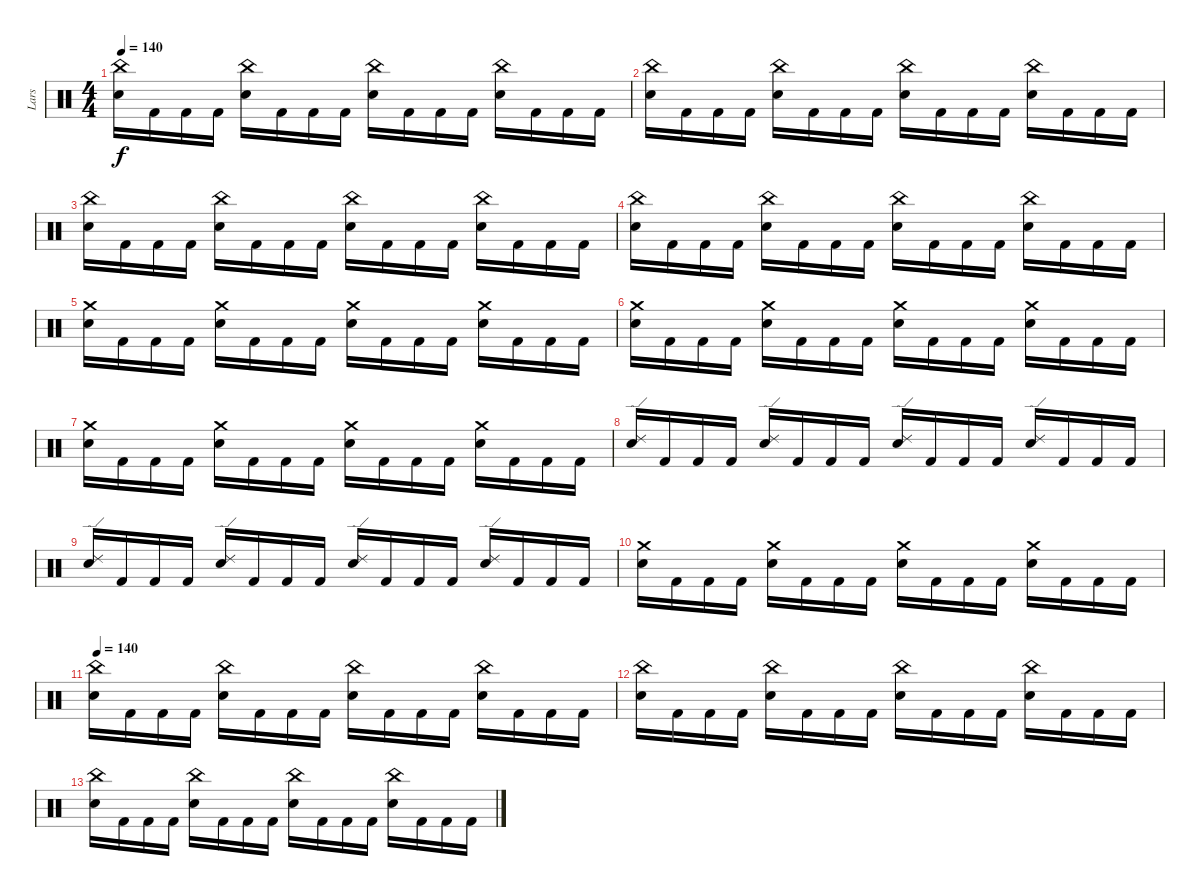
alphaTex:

\track ("Lars" "Lars") {instrument percussion}
\staff {score}
\articulation defaults
\ts (4 4)
\tempo 140
\clef neutral
\ks c
("China (hit)" "Electric Snare (hit)").16{dy f} "Kick (hit) 2".16 "Kick (hit) 2".16 "Kick (hit) 2".16 ("Electric Snare (hit)" "China (hit)").16 "Kick (hit) 2".16 "Kick (hit) 2".16 "Kick (hit) 2".16 ("Electric Snare (hit)" "China (hit)").16 "Kick (hit) 2".16 "Kick (hit) 2".16 "Kick (hit) 2".16 ("China (hit)" "Electric Snare (hit)").16 "Kick (hit) 2".16 "Kick (hit) 2".16 "Kick (hit) 2".16 |
("China (hit)" "Electric Snare (hit)").16 "Kick (hit) 2".16 "Kick (hit) 2".16 "Kick (hit) 2".16 ("Electric Snare (hit)" "China (hit)").16 "Kick (hit) 2".16 "Kick (hit) 2".16 "Kick (hit) 2".16 ("Electric Snare (hit)" "China (hit)").16 "Kick (hit) 2".16 "Kick (hit) 2".16 "Kick (hit) 2".16 ("China (hit)" "Electric Snare (hit)").16 "Kick (hit) 2".16 "Kick (hit) 2".16 "Kick (hit) 2".16 |
("China (hit)" "Electric Snare (hit)").16 "Kick (hit) 2".16 "Kick (hit) 2".16 "Kick (hit) 2".16 ("Electric Snare (hit)" "China (hit)").16 "Kick (hit) 2".16 "Kick (hit) 2".16 "Kick (hit) 2".16 ("Electric Snare (hit)" "China (hit)").16 "Kick (hit) 2".16 "Kick (hit) 2".16 "Kick (hit) 2".16 ("China (hit)" "Electric Snare (hit)").16 "Kick (hit) 2".16 "Kick (hit) 2".16 "Kick (hit) 2".16 |
("China (hit)" "Electric Snare (hit)").16 "Kick (hit) 2".16 "Kick (hit) 2".16 "Kick (hit) 2".16 ("Electric Snare (hit)" "China (hit)").16 "Kick (hit) 2".16 "Kick (hit) 2".16 "Kick (hit) 2".16 ("Electric Snare (hit)" "China (hit)").16 "Kick (hit) 2".16 "Kick (hit) 2".16 "Kick (hit) 2".16 ("China (hit)" "Electric Snare (hit)").16 "Kick (hit) 2".16 "Kick (hit) 2".16 "Kick (hit) 2".16 |
("Electric Snare (hit)" "Crash medium (hit)").16 "Kick (hit) 2".16 "Kick (hit) 2".16 "Kick (hit) 2".16 ("Crash medium (hit)" "Electric Snare (hit)").16 "Kick (hit) 2".16 "Kick (hit) 2".16 "Kick (hit) 2".16 ("Electric Snare (hit)" "Crash medium (hit)").16 "Kick (hit) 2".16 "Kick (hit) 2".16 "Kick (hit) 2".16 ("Crash medium (hit)" "Electric Snare (hit)").16 "Kick (hit) 2".16 "Kick (hit) 2".16 "Kick (hit) 2".16 |
("Electric Snare (hit)" "Crash medium (hit)").16 "Kick (hit) 2".16 "Kick (hit) 2".16 "Kick (hit) 2".16 ("Crash medium (hit)" "Electric Snare (hit)").16 "Kick (hit) 2".16 "Kick (hit) 2".16 "Kick (hit) 2".16 ("Electric Snare (hit)" "Crash medium (hit)").16 "Kick (hit) 2".16 "Kick (hit) 2".16 "Kick (hit) 2".16 ("Crash medium (hit)" "Electric Snare (hit)").16 "Kick (hit) 2".16 "Kick (hit) 2".16 "Kick (hit) 2".16 |
("Electric Snare (hit)" "Crash medium (hit)").16 "Kick (hit) 2".16 "Kick (hit) 2".16 "Kick (hit) 2".16 ("Crash medium (hit)" "Electric Snare (hit)").16 "Kick (hit) 2".16 "Kick (hit) 2".16 "Kick (hit) 2".16 ("Electric Snare (hit)" "Crash medium (hit)").16 "Kick (hit) 2".16 "Kick (hit) 2".16 "Kick (hit) 2".16 ("Crash medium (hit)" "Electric Snare (hit)").16 "Kick (hit) 2".16 "Kick (hit) 2".16 "Kick (hit) 2".16 |
("Ride (edge) 2" "Electric Snare (hit)").16 "Kick (hit) 2".16 "Kick (hit) 2".16 "Kick (hit) 2".16 ("Ride (edge) 2" "Electric Snare (hit)").16 "Kick (hit) 2".16 "Kick (hit) 2".16 "Kick (hit) 2".16 ("Ride (edge) 2" "Electric Snare (hit)").16 "Kick (hit) 2".16 "Kick (hit) 2".16 "Kick (hit) 2".16 ("Electric Snare (hit)" "Ride (edge) 2").16 "Kick (hit) 2".16 "Kick (hit) 2".16 "Kick (hit) 2".16 |
("Ride (edge) 2" "Electric Snare (hit)").16 "Kick (hit) 2".16 "Kick (hit) 2".16 "Kick (hit) 2".16 ("Ride (edge) 2" "Electric Snare (hit)").16 "Kick (hit) 2".16 "Kick (hit) 2".16 "Kick (hit) 2".16 ("Ride (edge) 2" "Electric Snare (hit)").16 "Kick (hit) 2".16 "Kick (hit) 2".16 "Kick (hit) 2".16 ("Electric Snare (hit)" "Ride (edge) 2").16 "Kick (hit) 2".16 "Kick (hit) 2".16 "Kick (hit) 2".16 |
("Electric Snare (hit)" "Crash medium (hit)").16 "Kick (hit) 2".16 "Kick (hit) 2".16 "Kick (hit) 2".16 ("Crash medium (hit)" "Electric Snare (hit)").16 "Kick (hit) 2".16 "Kick (hit) 2".16 "Kick (hit) 2".16 ("Electric Snare (hit)" "Crash medium (hit)").16 "Kick (hit) 2".16 "Kick (hit) 2".16 "Kick (hit) 2".16 ("Crash medium (hit)" "Electric Snare (hit)").16 "Kick (hit) 2".16 "Kick (hit) 2".16 "Kick (hit) 2".16 |
\tempo 140
("China (hit)" "Electric Snare (hit)").16 "Kick (hit) 2".16 "Kick (hit) 2".16 "Kick (hit) 2".16 ("Electric Snare (hit)" "China (hit)").16 "Kick (hit) 2".16 "Kick (hit) 2".16 "Kick (hit) 2".16 ("Electric Snare (hit)" "China (hit)").16 "Kick (hit) 2".16 "Kick (hit) 2".16 "Kick (hit) 2".16 ("China (hit)" "Electric Snare (hit)").16 "Kick (hit) 2".16 "Kick (hit) 2".16 "Kick (hit) 2".16 |
("China (hit)" "Electric Snare (hit)").16 "Kick (hit) 2".16 "Kick (hit) 2".16 "Kick (hit) 2".16 ("Electric Snare (hit)" "China (hit)").16 "Kick (hit) 2".16 "Kick (hit) 2".16 "Kick (hit) 2".16 ("Electric Snare (hit)" "China (hit)").16 "Kick (hit) 2".16 "Kick (hit) 2".16 "Kick (hit) 2".16 ("China (hit)" "Electric Snare (hit)").16 "Kick (hit) 2".16 "Kick (hit) 2".16 "Kick (hit) 2".16 |
("China (hit)" "Electric Snare (hit)").16 "Kick (hit) 2".16 "Kick (hit) 2".16 "Kick (hit) 2".16 ("Electric Snare (hit)" "China (hit)").16 "Kick (hit) 2".16 "Kick (hit) 2".16 "Kick (hit) 2".16 ("Electric Snare (hit)" "China (hit)").16 "Kick (hit) 2".16 "Kick (hit) 2".16 "Kick (hit) 2".16 ("China (hit)" "Electric Snare (hit)").16 "Kick (hit) 2".16 "Kick (hit) 2".16 "Kick (hit) 2".16
